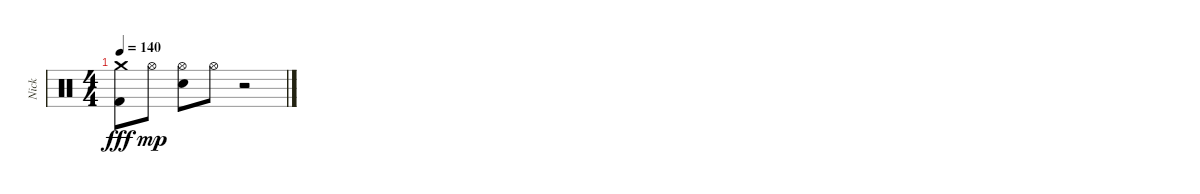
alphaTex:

\track ("Nick" "Nick") {instrument percussion}
\staff {score}
\articulation defaults
\ts (4 4)
\tempo 140
\clef neutral
\ks c
("Crash medium (hit)" "Kick (hit) 2").8{dy fff} "Hi-Hat (open)".8{dy mp} ("Hi-Hat (open)" "Electric Snare (hit)").8 "Hi-Hat (open)".8 r.2
